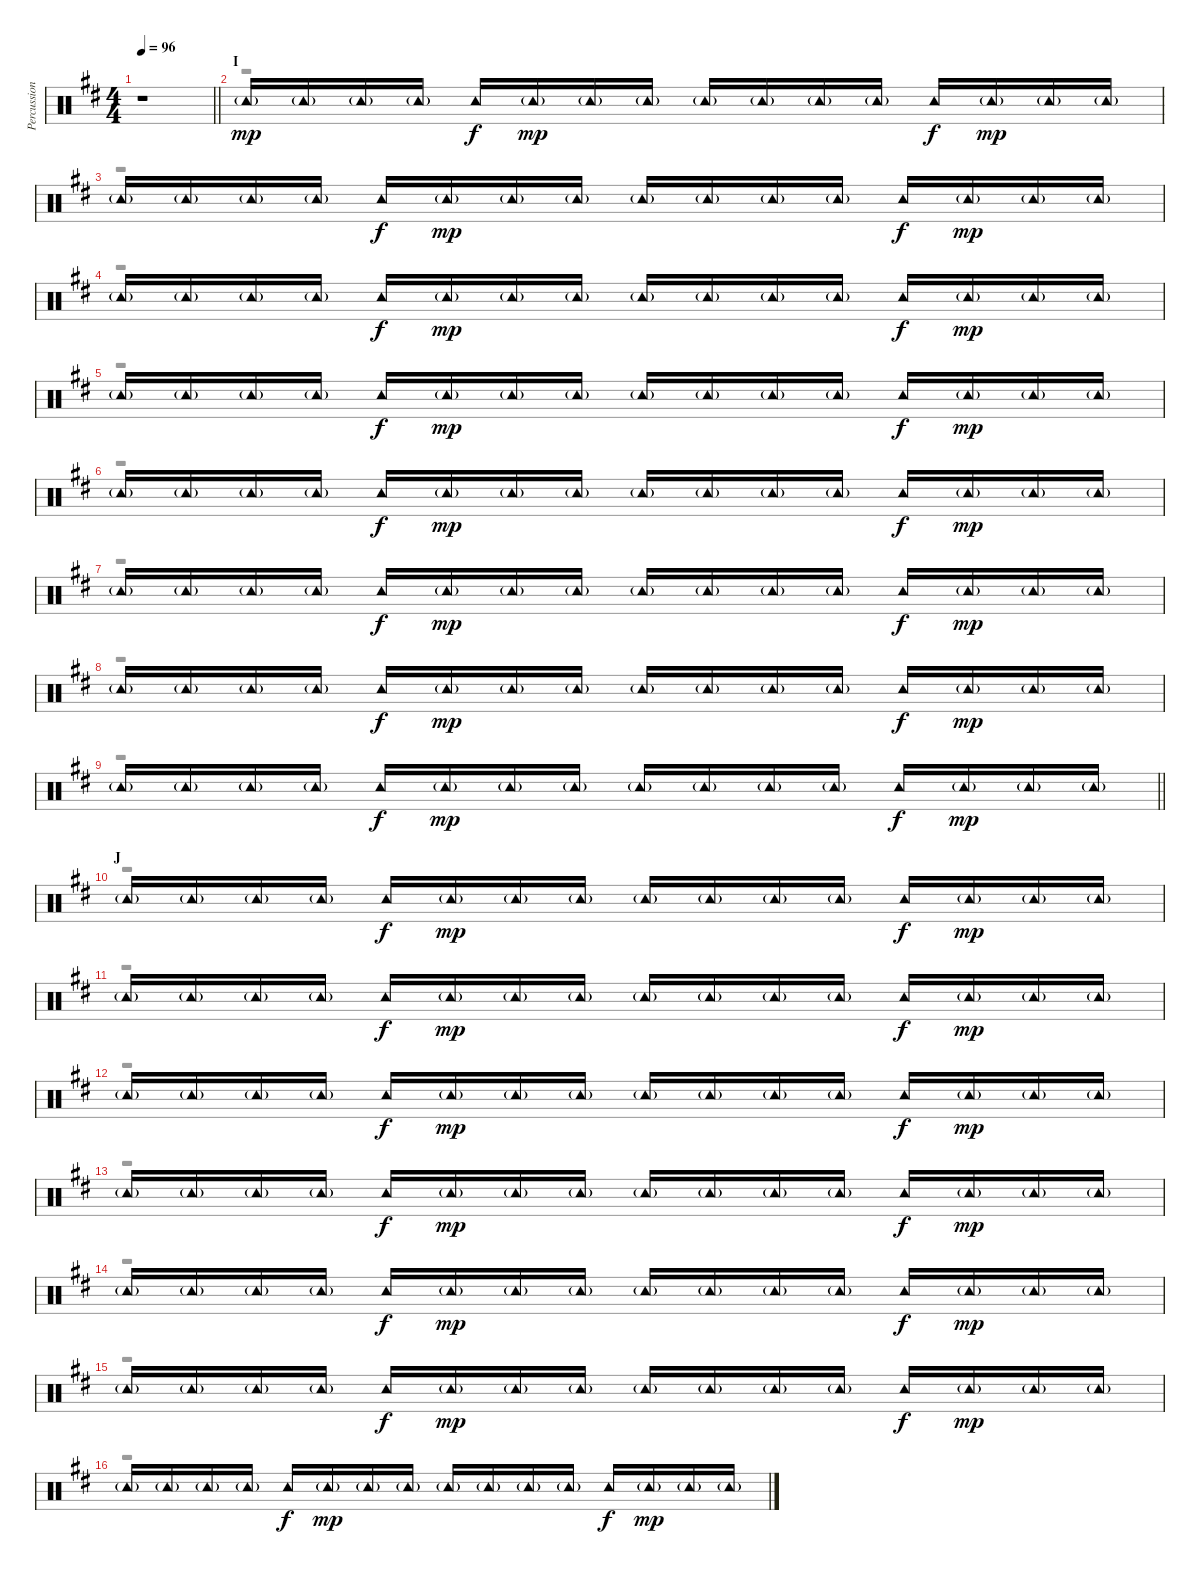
\track ("Percussion" "Percussion") {instrument percussion}
\staff {score}
\articulation defaults
\voice
\ts (4 4)
\tempo 96
\clef neutral
\barLineRight lightlight
\ks d
r.1{dy mp} |
\section ("" "I")
"Tambourine (hit)"{g}.16 "Tambourine (hit)"{g}.16 "Tambourine (hit)"{g}.16 "Tambourine (hit)"{g}.16 "Tambourine (hit)".16{dy f} "Tambourine (hit)"{g}.16{dy mp} "Tambourine (hit)"{g}.16 "Tambourine (hit)"{g}.16 "Tambourine (hit)"{g}.16 "Tambourine (hit)"{g}.16 "Tambourine (hit)"{g}.16 "Tambourine (hit)"{g}.16 "Tambourine (hit)".16{dy f} "Tambourine (hit)"{g}.16{dy mp} "Tambourine (hit)"{g}.16 "Tambourine (hit)"{g}.16 |
"Tambourine (hit)"{g}.16 "Tambourine (hit)"{g}.16 "Tambourine (hit)"{g}.16 "Tambourine (hit)"{g}.16 "Tambourine (hit)".16{dy f} "Tambourine (hit)"{g}.16{dy mp} "Tambourine (hit)"{g}.16 "Tambourine (hit)"{g}.16 "Tambourine (hit)"{g}.16 "Tambourine (hit)"{g}.16 "Tambourine (hit)"{g}.16 "Tambourine (hit)"{g}.16 "Tambourine (hit)".16{dy f} "Tambourine (hit)"{g}.16{dy mp} "Tambourine (hit)"{g}.16 "Tambourine (hit)"{g}.16 |
"Tambourine (hit)"{g}.16 "Tambourine (hit)"{g}.16 "Tambourine (hit)"{g}.16 "Tambourine (hit)"{g}.16 "Tambourine (hit)".16{dy f} "Tambourine (hit)"{g}.16{dy mp} "Tambourine (hit)"{g}.16 "Tambourine (hit)"{g}.16 "Tambourine (hit)"{g}.16 "Tambourine (hit)"{g}.16 "Tambourine (hit)"{g}.16 "Tambourine (hit)"{g}.16 "Tambourine (hit)".16{dy f} "Tambourine (hit)"{g}.16{dy mp} "Tambourine (hit)"{g}.16 "Tambourine (hit)"{g}.16 |
"Tambourine (hit)"{g}.16 "Tambourine (hit)"{g}.16 "Tambourine (hit)"{g}.16 "Tambourine (hit)"{g}.16 "Tambourine (hit)".16{dy f} "Tambourine (hit)"{g}.16{dy mp} "Tambourine (hit)"{g}.16 "Tambourine (hit)"{g}.16 "Tambourine (hit)"{g}.16 "Tambourine (hit)"{g}.16 "Tambourine (hit)"{g}.16 "Tambourine (hit)"{g}.16 "Tambourine (hit)".16{dy f} "Tambourine (hit)"{g}.16{dy mp} "Tambourine (hit)"{g}.16 "Tambourine (hit)"{g}.16 |
"Tambourine (hit)"{g}.16 "Tambourine (hit)"{g}.16 "Tambourine (hit)"{g}.16 "Tambourine (hit)"{g}.16 "Tambourine (hit)".16{dy f} "Tambourine (hit)"{g}.16{dy mp} "Tambourine (hit)"{g}.16 "Tambourine (hit)"{g}.16 "Tambourine (hit)"{g}.16 "Tambourine (hit)"{g}.16 "Tambourine (hit)"{g}.16 "Tambourine (hit)"{g}.16 "Tambourine (hit)".16{dy f} "Tambourine (hit)"{g}.16{dy mp} "Tambourine (hit)"{g}.16 "Tambourine (hit)"{g}.16 |
"Tambourine (hit)"{g}.16 "Tambourine (hit)"{g}.16 "Tambourine (hit)"{g}.16 "Tambourine (hit)"{g}.16 "Tambourine (hit)".16{dy f} "Tambourine (hit)"{g}.16{dy mp} "Tambourine (hit)"{g}.16 "Tambourine (hit)"{g}.16 "Tambourine (hit)"{g}.16 "Tambourine (hit)"{g}.16 "Tambourine (hit)"{g}.16 "Tambourine (hit)"{g}.16 "Tambourine (hit)".16{dy f} "Tambourine (hit)"{g}.16{dy mp} "Tambourine (hit)"{g}.16 "Tambourine (hit)"{g}.16 |
"Tambourine (hit)"{g}.16 "Tambourine (hit)"{g}.16 "Tambourine (hit)"{g}.16 "Tambourine (hit)"{g}.16 "Tambourine (hit)".16{dy f} "Tambourine (hit)"{g}.16{dy mp} "Tambourine (hit)"{g}.16 "Tambourine (hit)"{g}.16 "Tambourine (hit)"{g}.16 "Tambourine (hit)"{g}.16 "Tambourine (hit)"{g}.16 "Tambourine (hit)"{g}.16 "Tambourine (hit)".16{dy f} "Tambourine (hit)"{g}.16{dy mp} "Tambourine (hit)"{g}.16 "Tambourine (hit)"{g}.16 |
\barLineRight lightlight "Tambourine (hit)"{g}.16 "Tambourine (hit)"{g}.16 "Tambourine (hit)"{g}.16 "Tambourine (hit)"{g}.16 "Tambourine (hit)".16{dy f} "Tambourine (hit)"{g}.16{dy mp} "Tambourine (hit)"{g}.16 "Tambourine (hit)"{g}.16 "Tambourine (hit)"{g}.16 "Tambourine (hit)"{g}.16 "Tambourine (hit)"{g}.16 "Tambourine (hit)"{g}.16 "Tambourine (hit)".16{dy f} "Tambourine (hit)"{g}.16{dy mp} "Tambourine (hit)"{g}.16 "Tambourine (hit)"{g}.16
|
\section ("" "J")
"Tambourine (hit)"{g}.16 "Tambourine (hit)"{g}.16 "Tambourine (hit)"{g}.16 "Tambourine (hit)"{g}.16 "Tambourine (hit)".16{dy f} "Tambourine (hit)"{g}.16{dy mp} "Tambourine (hit)"{g}.16 "Tambourine (hit)"{g}.16 "Tambourine (hit)"{g}.16 "Tambourine (hit)"{g}.16 "Tambourine (hit)"{g}.16 "Tambourine (hit)"{g}.16 "Tambourine (hit)".16{dy f} "Tambourine (hit)"{g}.16{dy mp} "Tambourine (hit)"{g}.16 "Tambourine (hit)"{g}.16 |
"Tambourine (hit)"{g}.16 "Tambourine (hit)"{g}.16 "Tambourine (hit)"{g}.16 "Tambourine (hit)"{g}.16 "Tambourine (hit)".16{dy f} "Tambourine (hit)"{g}.16{dy mp} "Tambourine (hit)"{g}.16 "Tambourine (hit)"{g}.16 "Tambourine (hit)"{g}.16 "Tambourine (hit)"{g}.16 "Tambourine (hit)"{g}.16 "Tambourine (hit)"{g}.16 "Tambourine (hit)".16{dy f} "Tambourine (hit)"{g}.16{dy mp} "Tambourine (hit)"{g}.16 "Tambourine (hit)"{g}.16 |
"Tambourine (hit)"{g}.16 "Tambourine (hit)"{g}.16 "Tambourine (hit)"{g}.16 "Tambourine (hit)"{g}.16 "Tambourine (hit)".16{dy f} "Tambourine (hit)"{g}.16{dy mp} "Tambourine (hit)"{g}.16 "Tambourine (hit)"{g}.16 "Tambourine (hit)"{g}.16 "Tambourine (hit)"{g}.16 "Tambourine (hit)"{g}.16 "Tambourine (hit)"{g}.16 "Tambourine (hit)".16{dy f} "Tambourine (hit)"{g}.16{dy mp} "Tambourine (hit)"{g}.16 "Tambourine (hit)"{g}.16 |
"Tambourine (hit)"{g}.16 "Tambourine (hit)"{g}.16 "Tambourine (hit)"{g}.16 "Tambourine (hit)"{g}.16 "Tambourine (hit)".16{dy f} "Tambourine (hit)"{g}.16{dy mp} "Tambourine (hit)"{g}.16 "Tambourine (hit)"{g}.16 "Tambourine (hit)"{g}.16 "Tambourine (hit)"{g}.16 "Tambourine (hit)"{g}.16 "Tambourine (hit)"{g}.16 "Tambourine (hit)".16{dy f} "Tambourine (hit)"{g}.16{dy mp} "Tambourine (hit)"{g}.16 "Tambourine (hit)"{g}.16 |
"Tambourine (hit)"{g}.16 "Tambourine (hit)"{g}.16 "Tambourine (hit)"{g}.16 "Tambourine (hit)"{g}.16 "Tambourine (hit)".16{dy f} "Tambourine (hit)"{g}.16{dy mp} "Tambourine (hit)"{g}.16 "Tambourine (hit)"{g}.16 "Tambourine (hit)"{g}.16 "Tambourine (hit)"{g}.16 "Tambourine (hit)"{g}.16 "Tambourine (hit)"{g}.16 "Tambourine (hit)".16{dy f} "Tambourine (hit)"{g}.16{dy mp} "Tambourine (hit)"{g}.16 "Tambourine (hit)"{g}.16 |
"Tambourine (hit)"{g}.16 "Tambourine (hit)"{g}.16 "Tambourine (hit)"{g}.16 "Tambourine (hit)"{g}.16 "Tambourine (hit)".16{dy f} "Tambourine (hit)"{g}.16{dy mp} "Tambourine (hit)"{g}.16 "Tambourine (hit)"{g}.16 "Tambourine (hit)"{g}.16 "Tambourine (hit)"{g}.16 "Tambourine (hit)"{g}.16 "Tambourine (hit)"{g}.16 "Tambourine (hit)".16{dy f} "Tambourine (hit)"{g}.16{dy mp} "Tambourine (hit)"{g}.16 "Tambourine (hit)"{g}.16 |
"Tambourine (hit)"{g}.16 "Tambourine (hit)"{g}.16 "Tambourine (hit)"{g}.16 "Tambourine (hit)"{g}.16 "Tambourine (hit)".16{dy f} "Tambourine (hit)"{g}.16{dy mp} "Tambourine (hit)"{g}.16 "Tambourine (hit)"{g}.16 "Tambourine (hit)"{g}.16 "Tambourine (hit)"{g}.16 "Tambourine (hit)"{g}.16 "Tambourine (hit)"{g}.16 "Tambourine (hit)".16{dy f} "Tambourine (hit)"{g}.16{dy mp} "Tambourine (hit)"{g}.16 "Tambourine (hit)"{g}.16
\voice
\clef neutral
\ottava regular
\simile none
\barLineRight lightlight
\ks d
r.1{dy fff} |
r.1 |
r.1 |
r.1 |
r.1 |
r.1 |
r.1 |
r.1 |
\barLineRight lightlight
r.1 |
r.1 |
r.1 |
r.1 |
r.1 |
r.1 |
r.1 |
r.1
